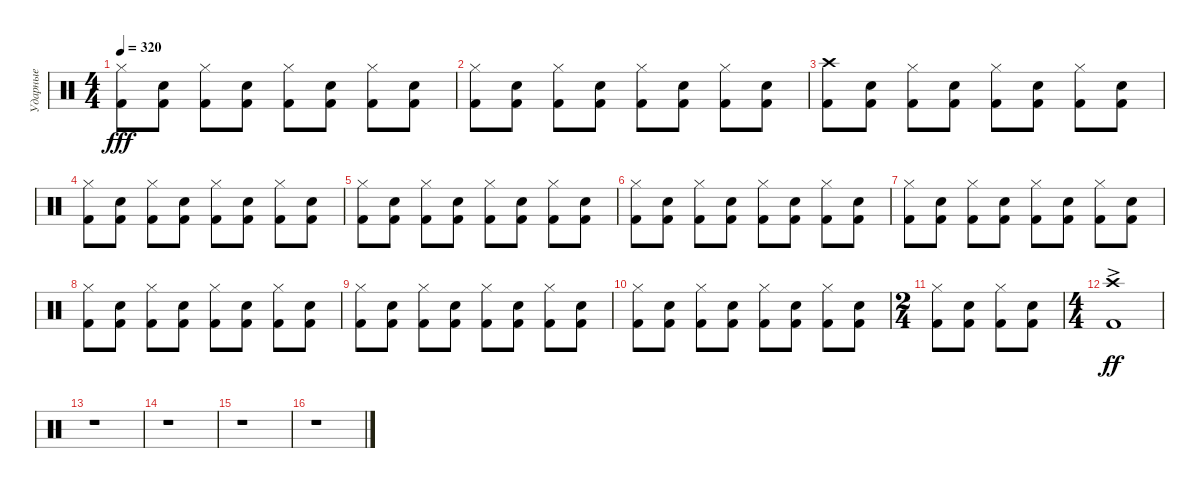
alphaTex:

\track ("Ударные" "Ударные") {instrument percussion}
\staff {score}
\articulation defaults
\ts (4 4)
\tempo 320
\clef neutral
\ks c
("Kick (hit) 2" "Hi-Hat (closed)").8{dy fff} ("Kick (hit) 2" "Snare (hit) 2").8 ("Kick (hit) 2" "Hi-Hat (closed)").8 ("Kick (hit) 2" "Snare (hit) 2").8 ("Kick (hit) 2" "Hi-Hat (closed)").8 ("Kick (hit) 2" "Snare (hit) 2").8 ("Kick (hit) 2" "Hi-Hat (closed)").8 ("Kick (hit) 2" "Snare (hit) 2").8 |
("Kick (hit) 2" "Hi-Hat (closed)").8 ("Kick (hit) 2" "Snare (hit) 2").8 ("Kick (hit) 2" "Hi-Hat (closed)").8 ("Kick (hit) 2" "Snare (hit) 2").8 ("Kick (hit) 2" "Hi-Hat (closed)").8 ("Kick (hit) 2" "Snare (hit) 2").8 ("Kick (hit) 2" "Hi-Hat (closed)").8 ("Kick (hit) 2" "Snare (hit) 2").8 |
("Kick (hit) 2" "Crash high (hit)").8 ("Kick (hit) 2" "Snare (hit) 2").8 ("Kick (hit) 2" "Hi-Hat (closed)").8 ("Kick (hit) 2" "Snare (hit) 2").8 ("Kick (hit) 2" "Hi-Hat (closed)").8 ("Kick (hit) 2" "Snare (hit) 2").8 ("Kick (hit) 2" "Hi-Hat (closed)").8 ("Kick (hit) 2" "Snare (hit) 2").8 |
("Kick (hit) 2" "Hi-Hat (closed)").8 ("Kick (hit) 2" "Snare (hit) 2").8 ("Kick (hit) 2" "Hi-Hat (closed)").8 ("Kick (hit) 2" "Snare (hit) 2").8 ("Kick (hit) 2" "Hi-Hat (closed)").8 ("Kick (hit) 2" "Snare (hit) 2").8 ("Kick (hit) 2" "Hi-Hat (closed)").8 ("Kick (hit) 2" "Snare (hit) 2").8 |
("Kick (hit) 2" "Hi-Hat (closed)").8 ("Kick (hit) 2" "Snare (hit) 2").8 ("Kick (hit) 2" "Hi-Hat (closed)").8 ("Kick (hit) 2" "Snare (hit) 2").8 ("Kick (hit) 2" "Hi-Hat (closed)").8 ("Kick (hit) 2" "Snare (hit) 2").8 ("Kick (hit) 2" "Hi-Hat (closed)").8 ("Kick (hit) 2" "Snare (hit) 2").8 |
("Kick (hit) 2" "Hi-Hat (closed)").8 ("Kick (hit) 2" "Snare (hit) 2").8 ("Kick (hit) 2" "Hi-Hat (closed)").8 ("Kick (hit) 2" "Snare (hit) 2").8 ("Kick (hit) 2" "Hi-Hat (closed)").8 ("Kick (hit) 2" "Snare (hit) 2").8 ("Kick (hit) 2" "Hi-Hat (closed)").8 ("Kick (hit) 2" "Snare (hit) 2").8 |
("Kick (hit) 2" "Hi-Hat (closed)").8 ("Kick (hit) 2" "Snare (hit) 2").8 ("Kick (hit) 2" "Hi-Hat (closed)").8 ("Kick (hit) 2" "Snare (hit) 2").8 ("Kick (hit) 2" "Hi-Hat (closed)").8 ("Kick (hit) 2" "Snare (hit) 2").8 ("Kick (hit) 2" "Hi-Hat (closed)").8 ("Kick (hit) 2" "Snare (hit) 2").8 |
("Kick (hit) 2" "Hi-Hat (closed)").8 ("Kick (hit) 2" "Snare (hit) 2").8 ("Kick (hit) 2" "Hi-Hat (closed)").8 ("Kick (hit) 2" "Snare (hit) 2").8 ("Kick (hit) 2" "Hi-Hat (closed)").8 ("Kick (hit) 2" "Snare (hit) 2").8 ("Kick (hit) 2" "Hi-Hat (closed)").8 ("Kick (hit) 2" "Snare (hit) 2").8 |
("Kick (hit) 2" "Hi-Hat (closed)").8 ("Kick (hit) 2" "Snare (hit) 2").8 ("Kick (hit) 2" "Hi-Hat (closed)").8 ("Kick (hit) 2" "Snare (hit) 2").8 ("Kick (hit) 2" "Hi-Hat (closed)").8 ("Kick (hit) 2" "Snare (hit) 2").8 ("Kick (hit) 2" "Hi-Hat (closed)").8 ("Kick (hit) 2" "Snare (hit) 2").8 |
("Kick (hit) 2" "Hi-Hat (closed)").8 ("Kick (hit) 2" "Snare (hit) 2").8 ("Kick (hit) 2" "Hi-Hat (closed)").8 ("Kick (hit) 2" "Snare (hit) 2").8 ("Kick (hit) 2" "Hi-Hat (closed)").8 ("Kick (hit) 2" "Snare (hit) 2").8 ("Kick (hit) 2" "Hi-Hat (closed)").8 ("Kick (hit) 2" "Snare (hit) 2").8 |
\ts (2 4)
("Kick (hit) 2" "Hi-Hat (closed)").8 ("Kick (hit) 2" "Snare (hit) 2").8 ("Kick (hit) 2" "Hi-Hat (closed)").8 ("Kick (hit) 2" "Snare (hit) 2").8 |
\ts (4 4)
("Kick (hit) 2" "Crash high (hit)"{ac}).1{dy ff} |
r.1 |
r.1 |
r.1 |
r.1
